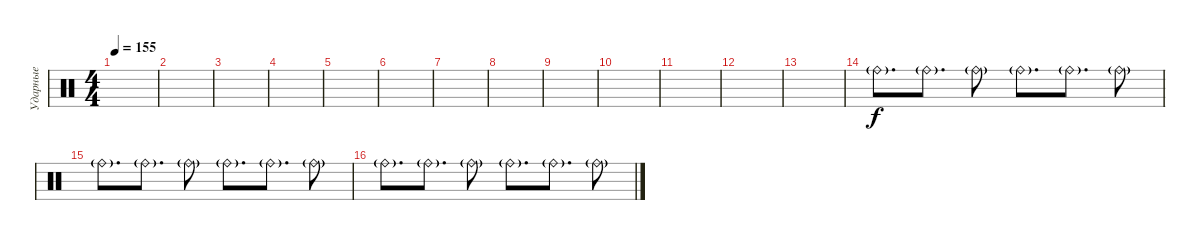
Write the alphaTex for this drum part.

\track ("Ударные" "Ударные") {instrument percussion}
\staff {score}
\articulation defaults
\ts (4 4)
\tempo 155
\clef neutral
\ks c
|
|
|
|
|
|
|
|
|
|
|
|
|
"Ride (bell)"{g}.8{d} "Ride (bell)"{g}.8{d} "Ride (bell)"{g}.8 "Ride (bell)"{g}.8{d} "Ride (bell)"{g}.8{d} "Ride (bell)"{g}.8 |
"Ride (bell)"{g}.8{d} "Ride (bell)"{g}.8{d} "Ride (bell)"{g}.8 "Ride (bell)"{g}.8{d} "Ride (bell)"{g}.8{d} "Ride (bell)"{g}.8 |
"Ride (bell)"{g}.8{d} "Ride (bell)"{g}.8{d} "Ride (bell)"{g}.8 "Ride (bell)"{g}.8{d} "Ride (bell)"{g}.8{d} "Ride (bell)"{g}.8
